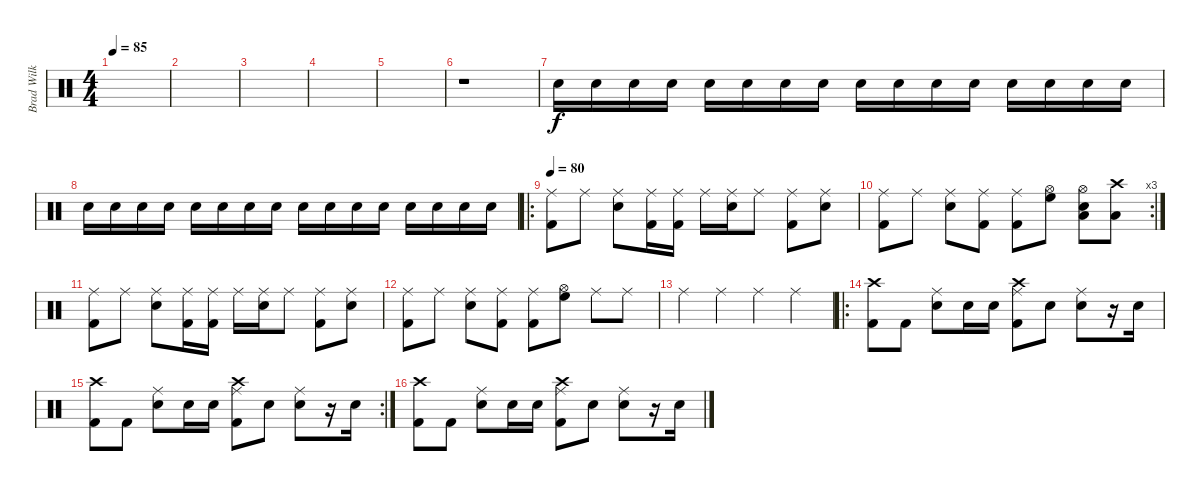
\track ("Brad Wilk" "Brad Wilk") {instrument percussion}
\staff {score}
\articulation defaults
\ts (4 4)
\tempo 85
\clef neutral
\ks c
|
|
|
|
|
r.1{volume 0} |
"Snare (hit) 2".16{volume 16} "Snare (hit) 2".16 "Snare (hit) 2".16 "Snare (hit) 2".16 "Snare (hit) 2".16 "Snare (hit) 2".16 "Snare (hit) 2".16 "Snare (hit) 2".16 "Snare (hit) 2".16 "Snare (hit) 2".16 "Snare (hit) 2".16 "Snare (hit) 2".16 "Snare (hit) 2".16 "Snare (hit) 2".16 "Snare (hit) 2".16 "Snare (hit) 2".16 |
"Snare (hit) 2".16 "Snare (hit) 2".16 "Snare (hit) 2".16 "Snare (hit) 2".16 "Snare (hit) 2".16 "Snare (hit) 2".16 "Snare (hit) 2".16 "Snare (hit) 2".16 "Snare (hit) 2".16 "Snare (hit) 2".16 "Snare (hit) 2".16 "Snare (hit) 2".16 "Snare (hit) 2".16 "Snare (hit) 2".16 "Snare (hit) 2".16 "Snare (hit) 2".16 |
\ro
\tempo 80
("Ride (middle)" "Kick (hit) 2").8 "Ride (middle)".8 ("Ride (middle)" "Snare (hit) 2").8 ("Ride (middle)" "Kick (hit) 2").16 ("Ride (middle)" "Kick (hit) 2").16 "Ride (middle)".16 ("Ride (middle)" "Snare (hit) 2").16 "Ride (middle)".8 ("Ride (middle)" "Kick (hit) 2").8 ("Ride (middle)" "Snare (hit) 2").8 |
\rc 3
("Ride (middle)" "Kick (hit) 2").8 "Ride (middle)".8 ("Ride (middle)" "Snare (hit) 2").8 ("Ride (middle)" "Kick (hit) 2").8 ("Ride (middle)" "Kick (hit) 2").8 ("Hi-Hat (open)" "High Floor Tom (hit)").8 ("Hi-Hat (open)" "Snare (hit) 2" "Low Tom (hit)").8 ("Crash high (hit)" "Low Floor Tom (hit)").8 |
("Ride (middle)" "Kick (hit) 2").8 "Ride (middle)".8 ("Ride (middle)" "Snare (hit) 2").8 ("Ride (middle)" "Kick (hit) 2").16 ("Ride (middle)" "Kick (hit) 2").16 "Ride (middle)".16 ("Ride (middle)" "Snare (hit) 2").16 "Ride (middle)".8 ("Ride (middle)" "Kick (hit) 2").8 ("Ride (middle)" "Snare (hit) 2").8 |
("Ride (middle)" "Kick (hit) 2").8 "Ride (middle)".8 ("Ride (middle)" "Snare (hit) 2").8 ("Ride (middle)" "Kick (hit) 2").8 ("Ride (middle)" "Kick (hit) 2").8 ("Hi-Hat (open)" "High Floor Tom (hit)").8 "Ride (middle)".8 "Ride (middle)".8 |
"Ride (middle)".4 "Ride (middle)".4 "Ride (middle)".4 "Ride (middle)".4 |
\ro
("Crash high (hit)" "Kick (hit) 2").8 "Kick (hit) 2".8 ("Ride (middle)" "Snare (hit) 2").8 "Snare (hit) 2".16 "Snare (hit) 2".16 ("Ride (middle)" "Crash high (hit)" "Kick (hit) 2").8 "Snare (hit) 2".8 ("Ride (middle)" "Snare (hit) 2").8 r.16 "Snare (hit) 2".16 |
\rc 2
("Crash high (hit)" "Kick (hit) 2").8 "Kick (hit) 2".8 ("Ride (middle)" "Snare (hit) 2").8 "Snare (hit) 2".16 "Snare (hit) 2".16 ("Ride (middle)" "Crash high (hit)" "Kick (hit) 2").8 "Snare (hit) 2".8 ("Ride (middle)" "Snare (hit) 2").8 r.16 "Snare (hit) 2".16 |
("Crash high (hit)" "Kick (hit) 2").8 "Kick (hit) 2".8 ("Ride (middle)" "Snare (hit) 2").8 "Snare (hit) 2".16 "Snare (hit) 2".16 ("Ride (middle)" "Crash high (hit)" "Kick (hit) 2").8 "Snare (hit) 2".8 ("Ride (middle)" "Snare (hit) 2").8 r.16 "Snare (hit) 2".16
